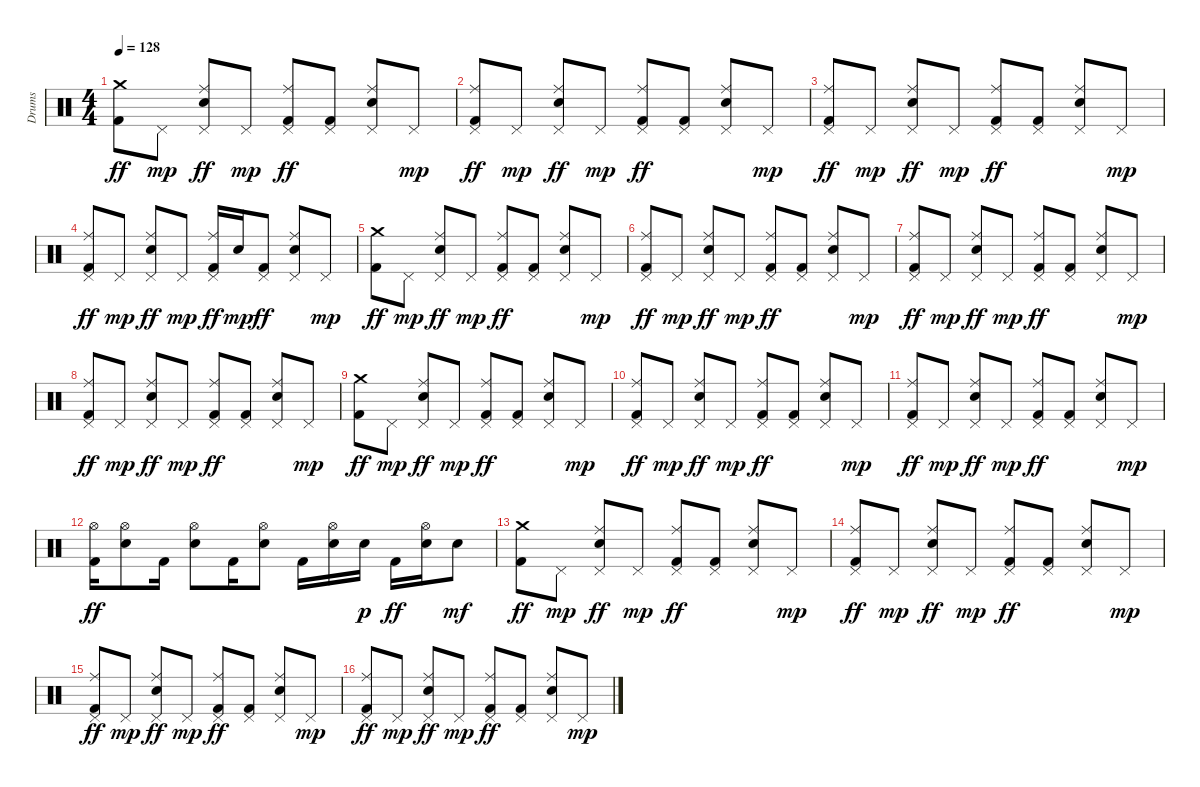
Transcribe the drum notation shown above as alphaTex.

\track ("Drums" "Drums") {instrument percussion}
\staff {score}
\articulation defaults
\ts (4 4)
\tempo 128
\clef neutral
\ks c
("Crash medium (hit)" "Kick (hit) 2").8{dy ff} "Pedal Hi-Hat (hit)".8{dy mp} ("Ride (middle)" "Pedal Hi-Hat (hit)" "Electric Snare (hit)").8{dy ff} "Pedal Hi-Hat (hit)".8{dy mp} ("Ride (middle)" "Pedal Hi-Hat (hit)" "Kick (hit) 2").8{dy ff} ("Pedal Hi-Hat (hit)" "Kick (hit) 2").8 ("Ride (middle)" "Pedal Hi-Hat (hit)" "Electric Snare (hit)").8 "Pedal Hi-Hat (hit)".8{dy mp} |
("Ride (middle)" "Pedal Hi-Hat (hit)" "Kick (hit) 2").8{dy ff} "Pedal Hi-Hat (hit)".8{dy mp} ("Ride (middle)" "Pedal Hi-Hat (hit)" "Electric Snare (hit)").8{dy ff} "Pedal Hi-Hat (hit)".8{dy mp} ("Ride (middle)" "Pedal Hi-Hat (hit)" "Kick (hit) 2").8{dy ff} ("Pedal Hi-Hat (hit)" "Kick (hit) 2").8 ("Ride (middle)" "Pedal Hi-Hat (hit)" "Electric Snare (hit)").8 "Pedal Hi-Hat (hit)".8{dy mp} |
("Ride (middle)" "Pedal Hi-Hat (hit)" "Kick (hit) 2").8{dy ff} "Pedal Hi-Hat (hit)".8{dy mp} ("Ride (middle)" "Pedal Hi-Hat (hit)" "Electric Snare (hit)").8{dy ff} "Pedal Hi-Hat (hit)".8{dy mp} ("Ride (middle)" "Pedal Hi-Hat (hit)" "Kick (hit) 2").8{dy ff} ("Pedal Hi-Hat (hit)" "Kick (hit) 2").8 ("Ride (middle)" "Pedal Hi-Hat (hit)" "Electric Snare (hit)").8 "Pedal Hi-Hat (hit)".8{dy mp} |
("Ride (middle)" "Pedal Hi-Hat (hit)" "Kick (hit) 2").8{dy ff} "Pedal Hi-Hat (hit)".8{dy mp} ("Ride (middle)" "Pedal Hi-Hat (hit)" "Electric Snare (hit)").8{dy ff} "Pedal Hi-Hat (hit)".8{dy mp} ("Ride (middle)" "Pedal Hi-Hat (hit)" "Kick (hit) 2").16{dy ff} "Electric Snare (hit)".16{dy mp} ("Pedal Hi-Hat (hit)" "Kick (hit) 2").8{dy ff} ("Ride (middle)" "Pedal Hi-Hat (hit)" "Electric Snare (hit)").8 "Pedal Hi-Hat (hit)".8{dy mp} |
("Crash medium (hit)" "Kick (hit) 2").8{dy ff} "Pedal Hi-Hat (hit)".8{dy mp} ("Ride (middle)" "Pedal Hi-Hat (hit)" "Electric Snare (hit)").8{dy ff} "Pedal Hi-Hat (hit)".8{dy mp} ("Ride (middle)" "Pedal Hi-Hat (hit)" "Kick (hit) 2").8{dy ff} ("Pedal Hi-Hat (hit)" "Kick (hit) 2").8 ("Ride (middle)" "Pedal Hi-Hat (hit)" "Electric Snare (hit)").8 "Pedal Hi-Hat (hit)".8{dy mp} |
("Ride (middle)" "Pedal Hi-Hat (hit)" "Kick (hit) 2").8{dy ff} "Pedal Hi-Hat (hit)".8{dy mp} ("Ride (middle)" "Pedal Hi-Hat (hit)" "Electric Snare (hit)").8{dy ff} "Pedal Hi-Hat (hit)".8{dy mp} ("Ride (middle)" "Pedal Hi-Hat (hit)" "Kick (hit) 2").8{dy ff} ("Pedal Hi-Hat (hit)" "Kick (hit) 2").8 ("Ride (middle)" "Pedal Hi-Hat (hit)" "Electric Snare (hit)").8 "Pedal Hi-Hat (hit)".8{dy mp} |
("Ride (middle)" "Pedal Hi-Hat (hit)" "Kick (hit) 2").8{dy ff} "Pedal Hi-Hat (hit)".8{dy mp} ("Ride (middle)" "Pedal Hi-Hat (hit)" "Electric Snare (hit)").8{dy ff} "Pedal Hi-Hat (hit)".8{dy mp} ("Ride (middle)" "Pedal Hi-Hat (hit)" "Kick (hit) 2").8{dy ff} ("Pedal Hi-Hat (hit)" "Kick (hit) 2").8 ("Ride (middle)" "Pedal Hi-Hat (hit)" "Electric Snare (hit)").8 "Pedal Hi-Hat (hit)".8{dy mp} |
("Ride (middle)" "Pedal Hi-Hat (hit)" "Kick (hit) 2").8{dy ff} "Pedal Hi-Hat (hit)".8{dy mp} ("Ride (middle)" "Pedal Hi-Hat (hit)" "Electric Snare (hit)").8{dy ff} "Pedal Hi-Hat (hit)".8{dy mp} ("Ride (middle)" "Pedal Hi-Hat (hit)" "Kick (hit) 2").8{dy ff} ("Pedal Hi-Hat (hit)" "Kick (hit) 2").8 ("Ride (middle)" "Pedal Hi-Hat (hit)" "Electric Snare (hit)").8 "Pedal Hi-Hat (hit)".8{dy mp} |
("Crash medium (hit)" "Kick (hit) 2").8{dy ff} "Pedal Hi-Hat (hit)".8{dy mp} ("Ride (middle)" "Pedal Hi-Hat (hit)" "Electric Snare (hit)").8{dy ff} "Pedal Hi-Hat (hit)".8{dy mp} ("Ride (middle)" "Pedal Hi-Hat (hit)" "Kick (hit) 2").8{dy ff} ("Pedal Hi-Hat (hit)" "Kick (hit) 2").8 ("Ride (middle)" "Pedal Hi-Hat (hit)" "Electric Snare (hit)").8 "Pedal Hi-Hat (hit)".8{dy mp} |
("Ride (middle)" "Pedal Hi-Hat (hit)" "Kick (hit) 2").8{dy ff} "Pedal Hi-Hat (hit)".8{dy mp} ("Ride (middle)" "Pedal Hi-Hat (hit)" "Electric Snare (hit)").8{dy ff} "Pedal Hi-Hat (hit)".8{dy mp} ("Ride (middle)" "Pedal Hi-Hat (hit)" "Kick (hit) 2").8{dy ff} ("Pedal Hi-Hat (hit)" "Kick (hit) 2").8 ("Ride (middle)" "Pedal Hi-Hat (hit)" "Electric Snare (hit)").8 "Pedal Hi-Hat (hit)".8{dy mp} |
("Ride (middle)" "Pedal Hi-Hat (hit)" "Kick (hit) 2").8{dy ff} "Pedal Hi-Hat (hit)".8{dy mp} ("Ride (middle)" "Pedal Hi-Hat (hit)" "Electric Snare (hit)").8{dy ff} "Pedal Hi-Hat (hit)".8{dy mp} ("Ride (middle)" "Pedal Hi-Hat (hit)" "Kick (hit) 2").8{dy ff} ("Pedal Hi-Hat (hit)" "Kick (hit) 2").8 ("Ride (middle)" "Pedal Hi-Hat (hit)" "Electric Snare (hit)").8 "Pedal Hi-Hat (hit)".8{dy mp} |
("Hi-Hat (open)" "Kick (hit) 2").16{dy ff} ("Hi-Hat (open)" "Electric Snare (hit)").8 "Kick (hit) 2".16 ("Hi-Hat (open)" "Electric Snare (hit)").8 "Kick (hit) 2".16 ("Hi-Hat (open)" "Electric Snare (hit)").8 "Kick (hit) 2".16 ("Hi-Hat (open)" "Electric Snare (hit)").16 "Electric Snare (hit)".16{dy p} "Kick (hit) 2".16{dy ff} ("Hi-Hat (open)" "Electric Snare (hit)").16 "Electric Snare (hit)".8{dy mf} |
("Crash medium (hit)" "Kick (hit) 2").8{dy ff} "Pedal Hi-Hat (hit)".8{dy mp} ("Ride (middle)" "Pedal Hi-Hat (hit)" "Electric Snare (hit)").8{dy ff} "Pedal Hi-Hat (hit)".8{dy mp} ("Ride (middle)" "Pedal Hi-Hat (hit)" "Kick (hit) 2").8{dy ff} ("Pedal Hi-Hat (hit)" "Kick (hit) 2").8 ("Ride (middle)" "Pedal Hi-Hat (hit)" "Electric Snare (hit)").8 "Pedal Hi-Hat (hit)".8{dy mp} |
("Ride (middle)" "Pedal Hi-Hat (hit)" "Kick (hit) 2").8{dy ff} "Pedal Hi-Hat (hit)".8{dy mp} ("Ride (middle)" "Pedal Hi-Hat (hit)" "Electric Snare (hit)").8{dy ff} "Pedal Hi-Hat (hit)".8{dy mp} ("Ride (middle)" "Pedal Hi-Hat (hit)" "Kick (hit) 2").8{dy ff} ("Pedal Hi-Hat (hit)" "Kick (hit) 2").8 ("Ride (middle)" "Pedal Hi-Hat (hit)" "Electric Snare (hit)").8 "Pedal Hi-Hat (hit)".8{dy mp} |
("Ride (middle)" "Pedal Hi-Hat (hit)" "Kick (hit) 2").8{dy ff} "Pedal Hi-Hat (hit)".8{dy mp} ("Ride (middle)" "Pedal Hi-Hat (hit)" "Electric Snare (hit)").8{dy ff} "Pedal Hi-Hat (hit)".8{dy mp} ("Ride (middle)" "Pedal Hi-Hat (hit)" "Kick (hit) 2").8{dy ff} ("Pedal Hi-Hat (hit)" "Kick (hit) 2").8 ("Ride (middle)" "Pedal Hi-Hat (hit)" "Electric Snare (hit)").8 "Pedal Hi-Hat (hit)".8{dy mp} |
("Ride (middle)" "Pedal Hi-Hat (hit)" "Kick (hit) 2").8{dy ff} "Pedal Hi-Hat (hit)".8{dy mp} ("Ride (middle)" "Pedal Hi-Hat (hit)" "Electric Snare (hit)").8{dy ff} "Pedal Hi-Hat (hit)".8{dy mp} ("Ride (middle)" "Pedal Hi-Hat (hit)" "Kick (hit) 2").8{dy ff} ("Pedal Hi-Hat (hit)" "Kick (hit) 2").8 ("Ride (middle)" "Pedal Hi-Hat (hit)" "Electric Snare (hit)").8 "Pedal Hi-Hat (hit)".8{dy mp}
